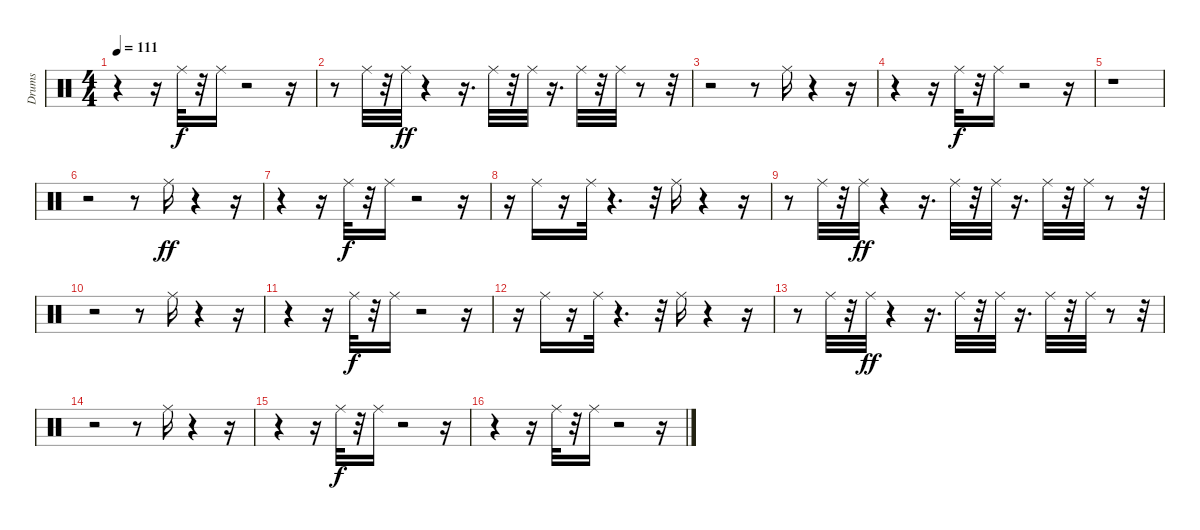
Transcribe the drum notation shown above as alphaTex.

\track ("Drums" "Drums") {instrument percussion}
\staff {score}
\articulation defaults
\ts (4 4)
\tempo 111
\clef neutral
\ks c
r.4{dy ff} r.16 "Ride (middle)".32{dy f} r.32 "Ride (middle)".16 r.2 r.16 |
r.8 "Ride (middle)".32 r.32 "Ride (middle)".32{dy ff} r.4 r.16{d} "Ride (middle)".32 r.32 "Ride (middle)".32 r.16{d} "Ride (middle)".32 r.32 "Ride (middle)".32 r.8 r.32 |
r.2 r.8 "Ride (middle)".16 r.4 r.16 |
r.4 r.16 "Ride (middle)".32{dy f} r.32 "Ride (middle)".16 r.2 r.16 |
r.1 |
r.2 r.8 "Ride (middle)".16{dy ff} r.4 r.16 |
r.4 r.16 "Ride (middle)".32{dy f} r.32 "Ride (middle)".16 r.2 r.16 |
r.16 "Ride (middle)".16 r.16 "Ride (middle)".32 r.4{d} r.32 "Ride (middle)".16 r.4 r.16 |
r.8 "Ride (middle)".32 r.32 "Ride (middle)".32{dy ff} r.4 r.16{d} "Ride (middle)".32 r.32 "Ride (middle)".32 r.16{d} "Ride (middle)".32 r.32 "Ride (middle)".32 r.8 r.32 |
r.2 r.8 "Ride (middle)".16 r.4 r.16 |
r.4 r.16 "Ride (middle)".32{dy f} r.32 "Ride (middle)".16 r.2 r.16 |
r.16 "Ride (middle)".16 r.16 "Ride (middle)".32 r.4{d} r.32 "Ride (middle)".16 r.4 r.16 |
r.8 "Ride (middle)".32 r.32 "Ride (middle)".32{dy ff} r.4 r.16{d} "Ride (middle)".32 r.32 "Ride (middle)".32 r.16{d} "Ride (middle)".32 r.32 "Ride (middle)".32 r.8 r.32 |
r.2 r.8 "Ride (middle)".16 r.4 r.16 |
r.4 r.16 "Ride (middle)".32{dy f} r.32 "Ride (middle)".16 r.2 r.16 |
r.4 r.16 "Ride (middle)".32 r.32 "Ride (middle)".16 r.2 r.16
